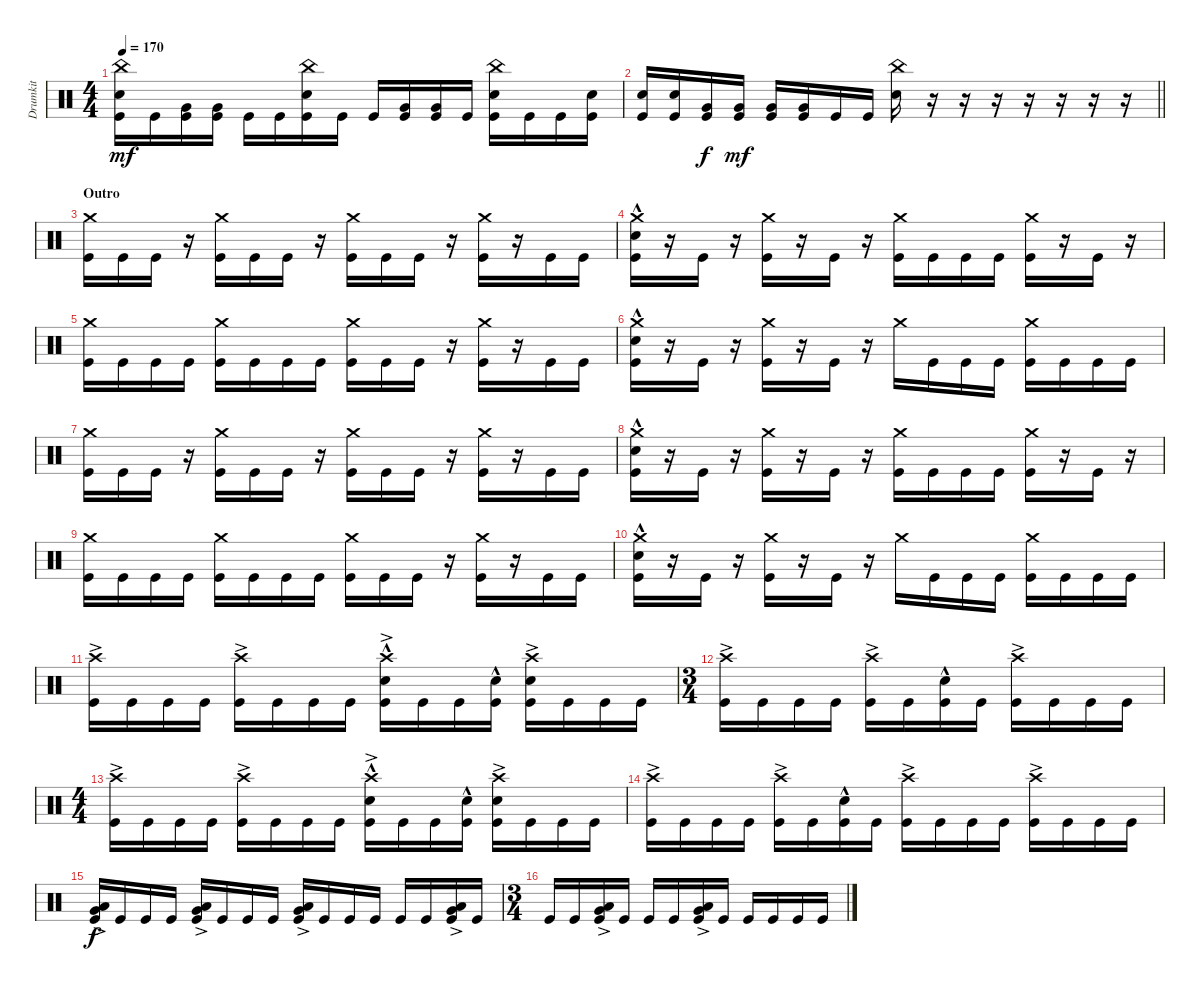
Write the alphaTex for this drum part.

\track ("Drumkit" "Drumkit") {instrument percussion}
\staff {score}
\articulation defaults
\ts (4 4)
\tempo 170
\clef neutral
\ks c
("China (hit)" "Snare (hit) 2" "Kick (hit)").16{dy mf} "Kick (hit)".16 ("Very Low Tom (hit)" "Kick (hit)").16 ("Very Low Tom (hit)" "Kick (hit)").16 "Kick (hit)".16 "Kick (hit)".16 ("China (hit)" "Snare (hit) 2" "Kick (hit)").16 "Kick (hit)".16 "Kick (hit)".16 ("Very Low Tom (hit)" "Kick (hit)").16 ("Very Low Tom (hit)" "Kick (hit)").16 "Kick (hit)".16 ("China (hit)" "Snare (hit) 2" "Kick (hit)").16 "Kick (hit)".16 "Kick (hit)".16 ("Snare (hit) 2" "Kick (hit)").16 |
\barLineRight lightlight
("Snare (hit) 2" "Kick (hit)").16 ("Snare (hit) 2" "Kick (hit)").16 ("Very Low Tom (hit)" "Kick (hit)").16{dy f} ("Very Low Tom (hit)" "Kick (hit)").16{dy mf} ("Very Low Tom (hit)" "Kick (hit)").16 ("Very Low Tom (hit)" "Kick (hit)").16 "Kick (hit)".16 "Kick (hit)".16 ("China (hit)" "Snare (hit) 2").16 r.16 r.16 r.16 r.16 r.16 r.16 r.16 |
\section ("" "Outro")
("Kick (hit)" "Crash medium (hit)").16 "Kick (hit)".16 "Kick (hit)".16 r.16 ("Kick (hit)" "Crash medium (hit)").16 "Kick (hit)".16 "Kick (hit)".16 r.16 ("Kick (hit)" "Crash medium (hit)").16 "Kick (hit)".16 "Kick (hit)".16 r.16 ("Kick (hit)" "Crash medium (hit)").16 r.16 "Kick (hit)".16 "Kick (hit)".16 |
("Kick (hit)" "Crash medium (hit)" "Snare (hit) 2"{hac}).16 r.16 "Kick (hit)".16 r.16 ("Kick (hit)" "Crash medium (hit)").16 r.16 "Kick (hit)".16 r.16 ("Kick (hit)" "Crash medium (hit)").16 "Kick (hit)".16 "Kick (hit)".16 "Kick (hit)".16 ("Kick (hit)" "Crash medium (hit)").16 r.16 "Kick (hit)".16 r.16 |
("Kick (hit)" "Crash medium (hit)").16 "Kick (hit)".16 "Kick (hit)".16 "Kick (hit)".16 ("Kick (hit)" "Crash medium (hit)").16 "Kick (hit)".16 "Kick (hit)".16 "Kick (hit)".16 ("Kick (hit)" "Crash medium (hit)").16 "Kick (hit)".16 "Kick (hit)".16 r.16 ("Kick (hit)" "Crash medium (hit)").16 r.16 "Kick (hit)".16 "Kick (hit)".16 |
("Kick (hit)" "Crash medium (hit)" "Snare (hit) 2"{hac}).16 r.16 "Kick (hit)".16 r.16 ("Kick (hit)" "Crash medium (hit)").16 r.16 "Kick (hit)".16 r.16 "Crash medium (hit)".16 "Kick (hit)".16 "Kick (hit)".16 "Kick (hit)".16 ("Kick (hit)" "Crash medium (hit)").16 "Kick (hit)".16 "Kick (hit)".16 "Kick (hit)".16 |
("Kick (hit)" "Crash medium (hit)").16 "Kick (hit)".16 "Kick (hit)".16 r.16 ("Kick (hit)" "Crash medium (hit)").16 "Kick (hit)".16 "Kick (hit)".16 r.16 ("Kick (hit)" "Crash medium (hit)").16 "Kick (hit)".16 "Kick (hit)".16 r.16 ("Kick (hit)" "Crash medium (hit)").16 r.16 "Kick (hit)".16 "Kick (hit)".16 |
("Kick (hit)" "Crash medium (hit)" "Snare (hit) 2"{hac}).16 r.16 "Kick (hit)".16 r.16 ("Kick (hit)" "Crash medium (hit)").16 r.16 "Kick (hit)".16 r.16 ("Kick (hit)" "Crash medium (hit)").16 "Kick (hit)".16 "Kick (hit)".16 "Kick (hit)".16 ("Kick (hit)" "Crash medium (hit)").16 r.16 "Kick (hit)".16 r.16 |
("Kick (hit)" "Crash medium (hit)").16 "Kick (hit)".16 "Kick (hit)".16 "Kick (hit)".16 ("Kick (hit)" "Crash medium (hit)").16 "Kick (hit)".16 "Kick (hit)".16 "Kick (hit)".16 ("Kick (hit)" "Crash medium (hit)").16 "Kick (hit)".16 "Kick (hit)".16 r.16 ("Kick (hit)" "Crash medium (hit)").16 r.16 "Kick (hit)".16 "Kick (hit)".16 |
("Kick (hit)" "Crash medium (hit)" "Snare (hit) 2"{hac}).16 r.16 "Kick (hit)".16 r.16 ("Kick (hit)" "Crash medium (hit)").16 r.16 "Kick (hit)".16 r.16 "Crash medium (hit)".16 "Kick (hit)".16 "Kick (hit)".16 "Kick (hit)".16 ("Kick (hit)" "Crash medium (hit)").16 "Kick (hit)".16 "Kick (hit)".16 "Kick (hit)".16 |
("Kick (hit)" "Crash high (hit)"{ac}).16 "Kick (hit)".16 "Kick (hit)".16 "Kick (hit)".16 ("Kick (hit)" "Crash high (hit)"{ac}).16 "Kick (hit)".16 "Kick (hit)".16 "Kick (hit)".16 ("Snare (hit) 2"{hac} "Kick (hit)" "Crash high (hit)"{ac}).16 "Kick (hit)".16 "Kick (hit)".16 ("Kick (hit)" "Snare (hit) 2"{hac}).16 ("Kick (hit)" "Snare (hit) 2"{ac} "Crash high (hit)"{ac}).16 "Kick (hit)".16 "Kick (hit)".16 "Kick (hit)".16 |
\ts (3 4)
("Kick (hit)" "Crash high (hit)"{ac}).16 "Kick (hit)".16 "Kick (hit)".16 "Kick (hit)".16 ("Kick (hit)" "Crash high (hit)"{ac}).16 "Kick (hit)".16 ("Kick (hit)" "Snare (hit) 2"{hac}).16 "Kick (hit)".16 ("Kick (hit)" "Crash high (hit)"{ac}).16 "Kick (hit)".16 "Kick (hit)".16 "Kick (hit)".16 |
\ts (4 4)
("Kick (hit)" "Crash high (hit)"{ac}).16 "Kick (hit)".16 "Kick (hit)".16 "Kick (hit)".16 ("Kick (hit)" "Crash high (hit)"{ac}).16 "Kick (hit)".16 "Kick (hit)".16 "Kick (hit)".16 ("Snare (hit) 2"{hac} "Kick (hit)" "Crash high (hit)"{ac}).16 "Kick (hit)".16 "Kick (hit)".16 ("Kick (hit)" "Snare (hit) 2"{hac}).16 ("Kick (hit)" "Snare (hit) 2"{ac} "Crash high (hit)"{ac}).16 "Kick (hit)".16 "Kick (hit)".16 "Kick (hit)".16 |
("Kick (hit)" "Crash high (hit)"{ac}).16 "Kick (hit)".16 "Kick (hit)".16 "Kick (hit)".16 ("Kick (hit)" "Crash high (hit)"{ac}).16 "Kick (hit)".16 ("Kick (hit)" "Snare (hit) 2"{hac}).16 "Kick (hit)".16 ("Kick (hit)" "Crash high (hit)"{ac}).16 "Kick (hit)".16 "Kick (hit)".16 "Kick (hit)".16 ("Kick (hit)" "Crash high (hit)"{ac}).16 "Kick (hit)".16 "Kick (hit)".16 "Kick (hit)".16 |
("Kick (hit)" "Very Low Tom (hit)"{ac} "Low Tom (hit)"{ac}).16{dy f} "Kick (hit)".16 "Kick (hit)".16 "Kick (hit)".16 ("Kick (hit)" "Low Tom (hit)"{ac} "Very Low Tom (hit)"{ac}).16 "Kick (hit)".16 "Kick (hit)".16 "Kick (hit)".16 ("Kick (hit)" "Very Low Tom (hit)"{ac} "Low Tom (hit)"{ac}).16 "Kick (hit)".16 "Kick (hit)".16 "Kick (hit)".16 "Kick (hit)".16 "Kick (hit)".16 ("Kick (hit)" "Very Low Tom (hit)"{ac} "Low Tom (hit)"{ac}).16 "Kick (hit)".16 |
\ts (3 4)
"Kick (hit)".16 "Kick (hit)".16 ("Kick (hit)" "Very Low Tom (hit)"{ac} "Low Tom (hit)"{ac}).16 "Kick (hit)".16 "Kick (hit)".16 "Kick (hit)".16 ("Kick (hit)" "Very Low Tom (hit)"{ac} "Low Tom (hit)"{ac}).16 "Kick (hit)".16 "Kick (hit)".16 "Kick (hit)".16 "Kick (hit)".16 "Kick (hit)".16
